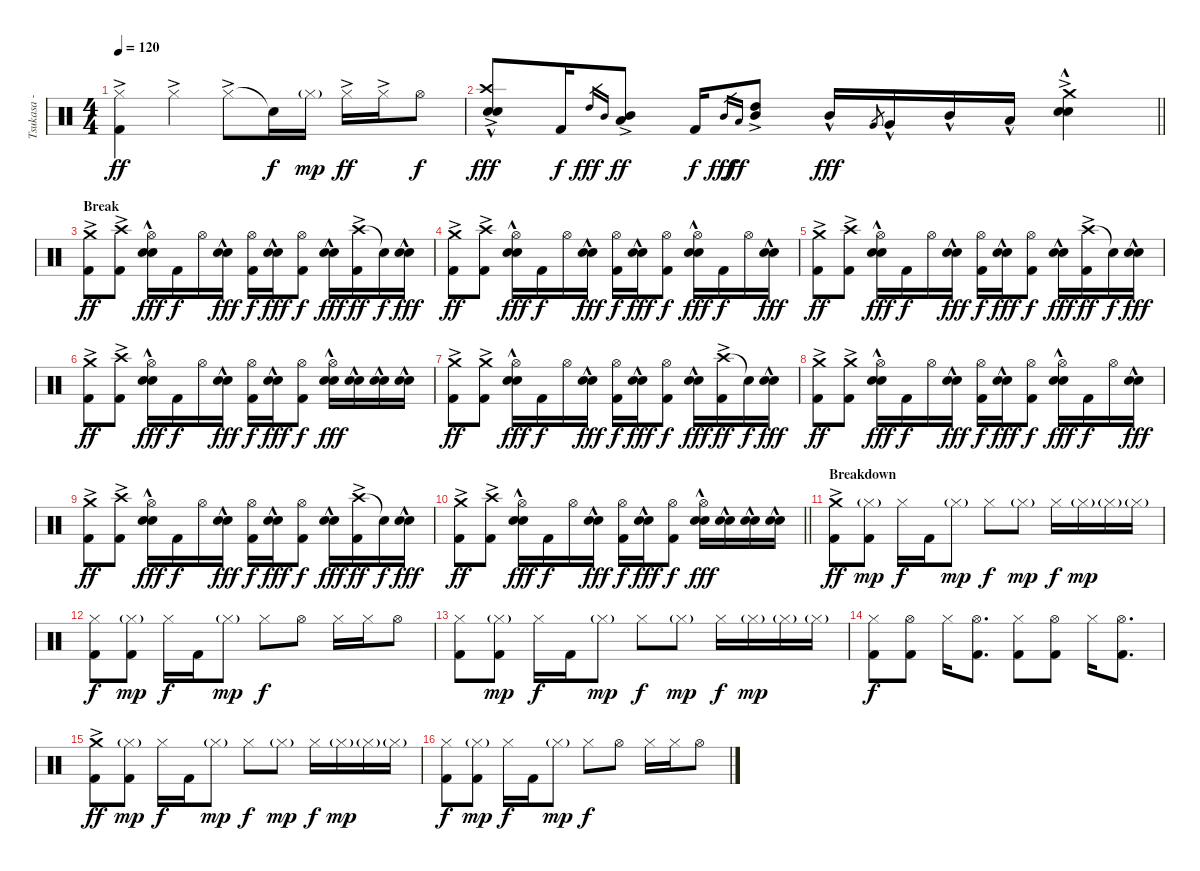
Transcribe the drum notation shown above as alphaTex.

\track ("Tsukasa - Drums" "Tsukasa - ") {instrument percussion}
\staff {score}
\articulation defaults
\ts (4 4)
\tempo 120
\clef neutral
\ks c
("Hi-Hat (closed)"{ac} "Kick (hit) 2").4{dy ff} "Hi-Hat (closed)"{ac}.4 "Hi-Hat (closed)"{ac}.8 "Snare (hit)"{t}.16{dy f} "Hi-Hat (closed)"{g}.16{dy mp} "Hi-Hat (closed)"{ac}.16{dy ff} "Hi-Hat (closed)"{ac}.16 "Hi-Hat (open)".8{dy f} |
\barLineRight lightlight
("Crash high (hit)"{ac} "Electric Snare (hit)"{hac} "Snare (hit) 2"{hac}).8{dy fff} "Kick (hit) 2".16{dy f} "High Tom (hit)".16{gr dy fff} "Mid Tom (hit)".16{gr} ("Mid Tom (hit)"{ac} "Low Tom (hit)"{ac}).8{dy ff} "Kick (hit) 2".16{dy f} "Mid Tom (hit)".16{gr dy fff} "Low Tom (hit)".16{gr dy ff} ("High Tom (hit)"{ac} "Mid Tom (hit)"{ac}).8 "Mid Tom (hit)"{hac}.16{dy fff} "Very Low Tom (hit)".8{gr} "Very Low Tom (hit)"{hac}.16 "Mid Tom (hit)"{hac}.16 "Low Tom (hit)"{hac}.16 ("Crash medium (hit)"{ac} "Electric Snare (hit)"{hac} "Snare (hit) 2"{hac}).4 |
\section ("" "Break")
("Crash medium (hit)"{ac} "Kick (hit) 2").8{dy ff} ("Crash high (hit)"{ac} "Kick (hit) 2").8 ("Hi-Hat (open)" "Electric Snare (hit)"{hac} "Snare (hit) 2"{hac}).16{dy fff} "Kick (hit) 2".16{dy f} "Hi-Hat (open)".16 ("Electric Snare (hit)"{hac} "Snare (hit) 2"{hac}).16{dy fff} ("Hi-Hat (open)" "Kick (hit) 2").16{dy f} ("Electric Snare (hit)"{hac} "Snare (hit) 2"{hac}).16{dy fff} ("Hi-Hat (open)" "Kick (hit) 2").8{dy f} ("Electric Snare (hit)"{hac} "Snare (hit) 2"{hac}).16{dy fff} ("Crash high (hit)"{ac} "Kick (hit) 2").16{dy ff} "Snare (hit)"{t}.16{dy f} ("Electric Snare (hit)"{hac} "Snare (hit) 2"{hac}).16{dy fff} |
("Crash medium (hit)"{ac} "Kick (hit) 2").8{dy ff} ("Crash high (hit)"{ac} "Kick (hit) 2").8 ("Hi-Hat (open)" "Electric Snare (hit)"{hac} "Snare (hit) 2"{hac}).16{dy fff} "Kick (hit) 2".16{dy f} "Hi-Hat (open)".16 ("Electric Snare (hit)"{hac} "Snare (hit) 2"{hac}).16{dy fff} ("Hi-Hat (open)" "Kick (hit) 2").16{dy f} ("Electric Snare (hit)"{hac} "Snare (hit) 2"{hac}).16{dy fff} ("Hi-Hat (open)" "Kick (hit) 2").8{dy f} ("Hi-Hat (open)" "Electric Snare (hit)"{hac} "Snare (hit) 2"{hac}).16{dy fff} "Kick (hit) 2".16{dy f} "Hi-Hat (open)".16 ("Electric Snare (hit)"{hac} "Snare (hit) 2"{hac}).16{dy fff} |
("Crash medium (hit)"{ac} "Kick (hit) 2").8{dy ff} ("Crash high (hit)"{ac} "Kick (hit) 2").8 ("Hi-Hat (open)" "Electric Snare (hit)"{hac} "Snare (hit) 2"{hac}).16{dy fff} "Kick (hit) 2".16{dy f} "Hi-Hat (open)".16 ("Electric Snare (hit)"{hac} "Snare (hit) 2"{hac}).16{dy fff} ("Hi-Hat (open)" "Kick (hit) 2").16{dy f} ("Electric Snare (hit)"{hac} "Snare (hit) 2"{hac}).16{dy fff} ("Hi-Hat (open)" "Kick (hit) 2").8{dy f} ("Electric Snare (hit)"{hac} "Snare (hit) 2"{hac}).16{dy fff} ("Crash high (hit)"{ac} "Kick (hit) 2").16{dy ff} "Snare (hit)"{t}.16{dy f} ("Electric Snare (hit)"{hac} "Snare (hit) 2"{hac}).16{dy fff} |
("Crash medium (hit)"{ac} "Kick (hit) 2").8{dy ff} ("Crash high (hit)"{ac} "Kick (hit) 2").8 ("Hi-Hat (open)" "Electric Snare (hit)"{hac} "Snare (hit) 2"{hac}).16{dy fff} "Kick (hit) 2".16{dy f} "Hi-Hat (open)".16 ("Electric Snare (hit)"{hac} "Snare (hit) 2"{hac}).16{dy fff} ("Hi-Hat (open)" "Kick (hit) 2").16{dy f} ("Electric Snare (hit)"{hac} "Snare (hit) 2"{hac}).16{dy fff} ("Hi-Hat (open)" "Kick (hit) 2").8{dy f} ("Hi-Hat (open)" "Electric Snare (hit)"{hac} "Snare (hit) 2"{hac}).16{dy fff} ("Electric Snare (hit)"{hac} "Snare (hit) 2"{hac}).16 ("Electric Snare (hit)"{hac} "Snare (hit) 2"{hac}).16 ("Electric Snare (hit)"{hac} "Snare (hit) 2"{hac}).16 |
("Crash medium (hit)"{ac} "Kick (hit) 2").8{dy ff} ("Crash medium (hit)"{ac} "Kick (hit) 2").8 ("Hi-Hat (open)" "Electric Snare (hit)"{hac} "Snare (hit) 2"{hac}).16{dy fff} "Kick (hit) 2".16{dy f} "Hi-Hat (open)".16 ("Electric Snare (hit)"{hac} "Snare (hit) 2"{hac}).16{dy fff} ("Hi-Hat (open)" "Kick (hit) 2").16{dy f} ("Electric Snare (hit)"{hac} "Snare (hit) 2"{hac}).16{dy fff} ("Hi-Hat (open)" "Kick (hit) 2").8{dy f} ("Electric Snare (hit)"{hac} "Snare (hit) 2"{hac}).16{dy fff} ("Crash high (hit)"{ac} "Kick (hit) 2").16{dy ff} "Snare (hit)"{t}.16{dy f} ("Electric Snare (hit)"{hac} "Snare (hit) 2"{hac}).16{dy fff} |
("Crash medium (hit)"{ac} "Kick (hit) 2").8{dy ff} ("Crash medium (hit)"{ac} "Kick (hit) 2").8 ("Hi-Hat (open)" "Electric Snare (hit)"{hac} "Snare (hit) 2"{hac}).16{dy fff} "Kick (hit) 2".16{dy f} "Hi-Hat (open)".16 ("Electric Snare (hit)"{hac} "Snare (hit) 2"{hac}).16{dy fff} ("Hi-Hat (open)" "Kick (hit) 2").16{dy f} ("Electric Snare (hit)"{hac} "Snare (hit) 2"{hac}).16{dy fff} ("Hi-Hat (open)" "Kick (hit) 2").8{dy f} ("Hi-Hat (open)" "Electric Snare (hit)"{hac} "Snare (hit) 2"{hac}).16{dy fff} "Kick (hit) 2".16{dy f} "Hi-Hat (open)".16 ("Electric Snare (hit)"{hac} "Snare (hit) 2"{hac}).16{dy fff} |
("Crash medium (hit)"{ac} "Kick (hit) 2").8{dy ff} ("Crash high (hit)"{ac} "Kick (hit) 2").8 ("Hi-Hat (open)" "Electric Snare (hit)"{hac} "Snare (hit) 2"{hac}).16{dy fff} "Kick (hit) 2".16{dy f} "Hi-Hat (open)".16 ("Electric Snare (hit)"{hac} "Snare (hit) 2"{hac}).16{dy fff} ("Hi-Hat (open)" "Kick (hit) 2").16{dy f} ("Electric Snare (hit)"{hac} "Snare (hit) 2"{hac}).16{dy fff} ("Hi-Hat (open)" "Kick (hit) 2").8{dy f} ("Electric Snare (hit)"{hac} "Snare (hit) 2"{hac}).16{dy fff} ("Crash high (hit)"{ac} "Kick (hit) 2").16{dy ff} "Snare (hit)"{t}.16{dy f} ("Electric Snare (hit)"{hac} "Snare (hit) 2"{hac}).16{dy fff} |
\barLineRight lightlight
("Crash medium (hit)"{ac} "Kick (hit) 2").8{dy ff} ("Crash high (hit)"{ac} "Kick (hit) 2").8 ("Hi-Hat (open)" "Electric Snare (hit)"{hac} "Snare (hit) 2"{hac}).16{dy fff} "Kick (hit) 2".16{dy f} "Hi-Hat (open)".16 ("Electric Snare (hit)"{hac} "Snare (hit) 2"{hac}).16{dy fff} ("Hi-Hat (open)" "Kick (hit) 2").16{dy f} ("Electric Snare (hit)"{hac} "Snare (hit) 2"{hac}).16{dy fff} ("Hi-Hat (open)" "Kick (hit) 2").8{dy f} ("Hi-Hat (open)" "Electric Snare (hit)"{hac} "Snare (hit) 2"{hac}).16{dy fff} ("Electric Snare (hit)"{hac} "Snare (hit) 2"{hac}).16 ("Electric Snare (hit)"{hac} "Snare (hit) 2"{hac}).16 ("Electric Snare (hit)"{hac} "Snare (hit) 2"{hac}).16 |
\section ("" "Breakdown")
("Crash medium (hit)"{ac} "Kick (hit) 2").8{dy ff} ("Hi-Hat (closed)"{g} "Kick (hit) 2").8{dy mp} "Hi-Hat (closed)".16{dy f} "Kick (hit) 2".16 "Hi-Hat (closed)"{g}.8{dy mp} "Hi-Hat (closed)".8{dy f} "Hi-Hat (closed)"{g}.8{dy mp} "Hi-Hat (closed)".16{dy f} "Hi-Hat (closed)"{g}.16{dy mp} "Hi-Hat (closed)"{g}.16 "Hi-Hat (closed)"{g}.16 |
("Hi-Hat (closed)" "Kick (hit) 2").8{dy f} ("Hi-Hat (closed)"{g} "Kick (hit) 2").8{dy mp} "Hi-Hat (closed)".16{dy f} "Kick (hit) 2".16 "Hi-Hat (closed)"{g}.8{dy mp} "Hi-Hat (closed)".8{dy f} "Hi-Hat (open)".8 "Hi-Hat (closed)".16 "Hi-Hat (closed)".16 "Hi-Hat (open)".8 |
("Hi-Hat (closed)" "Kick (hit) 2").8 ("Hi-Hat (closed)"{g} "Kick (hit) 2").8{dy mp} "Hi-Hat (closed)".16{dy f} "Kick (hit) 2".16 "Hi-Hat (closed)"{g}.8{dy mp} "Hi-Hat (closed)".8{dy f} "Hi-Hat (closed)"{g}.8{dy mp} "Hi-Hat (closed)".16{dy f} "Hi-Hat (closed)"{g}.16{dy mp} "Hi-Hat (closed)"{g}.16 "Hi-Hat (closed)"{g}.16 |
("Hi-Hat (closed)" "Kick (hit) 2").8{dy f} ("Hi-Hat (open)" "Kick (hit) 2").8 "Hi-Hat (closed)".16 ("Hi-Hat (open)" "Kick (hit) 2").8{d} ("Hi-Hat (closed)" "Kick (hit) 2").8 ("Hi-Hat (open)" "Kick (hit) 2").8 "Hi-Hat (closed)".16 ("Hi-Hat (open)" "Kick (hit) 2").8{d} |
("Crash medium (hit)"{ac} "Kick (hit) 2").8{dy ff} ("Hi-Hat (closed)"{g} "Kick (hit) 2").8{dy mp} "Hi-Hat (closed)".16{dy f} "Kick (hit) 2".16 "Hi-Hat (closed)"{g}.8{dy mp} "Hi-Hat (closed)".8{dy f} "Hi-Hat (closed)"{g}.8{dy mp} "Hi-Hat (closed)".16{dy f} "Hi-Hat (closed)"{g}.16{dy mp} "Hi-Hat (closed)"{g}.16 "Hi-Hat (closed)"{g}.16 |
("Hi-Hat (closed)" "Kick (hit) 2").8{dy f} ("Hi-Hat (closed)"{g} "Kick (hit) 2").8{dy mp} "Hi-Hat (closed)".16{dy f} "Kick (hit) 2".16 "Hi-Hat (closed)"{g}.8{dy mp} "Hi-Hat (closed)".8{dy f} "Hi-Hat (open)".8 "Hi-Hat (closed)".16 "Hi-Hat (closed)".16 "Hi-Hat (open)".8
